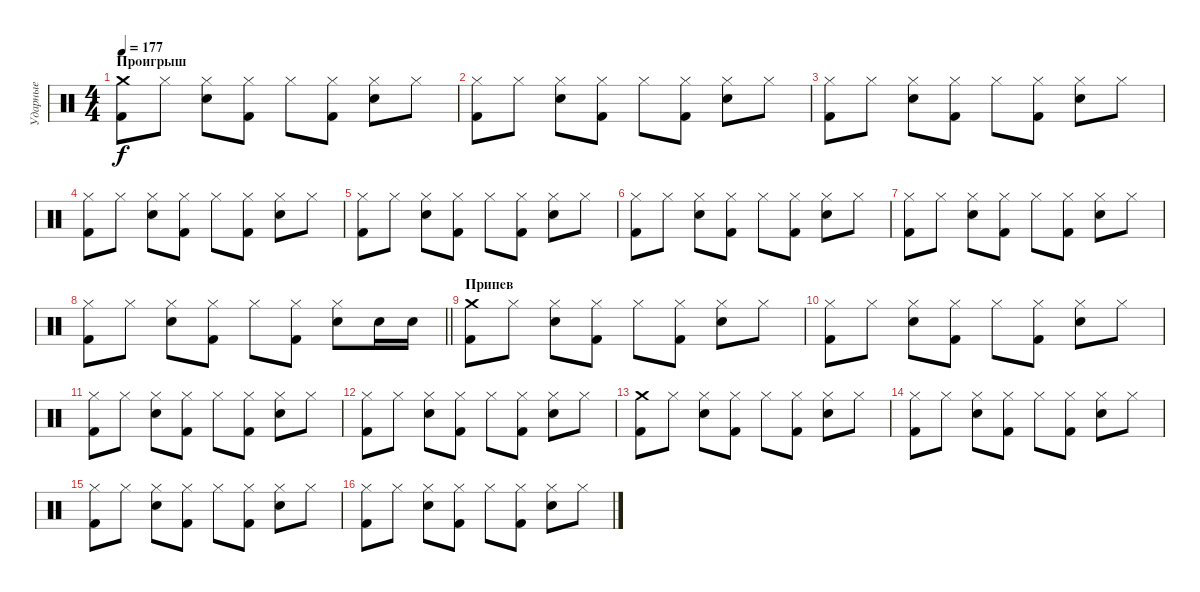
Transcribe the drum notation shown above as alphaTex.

\track ("Ударные" "Ударные") {instrument percussion}
\staff {score}
\articulation defaults
\ts (4 4)
\section ("" "Проигрыш")
\tempo 177
\clef neutral
\ks c
("Crash medium (hit)" "Kick (hit) 2").8{dy f} "Hi-Hat (closed)".8 ("Hi-Hat (closed)" "Snare (hit) 2").8 ("Hi-Hat (closed)" "Kick (hit) 2").8 "Hi-Hat (closed)".8 ("Hi-Hat (closed)" "Kick (hit) 2").8 ("Hi-Hat (closed)" "Snare (hit) 2").8 "Hi-Hat (closed)".8 |
("Hi-Hat (closed)" "Kick (hit) 2").8 "Hi-Hat (closed)".8 ("Hi-Hat (closed)" "Snare (hit) 2").8 ("Hi-Hat (closed)" "Kick (hit) 2").8 "Hi-Hat (closed)".8 ("Hi-Hat (closed)" "Kick (hit) 2").8 ("Hi-Hat (closed)" "Snare (hit) 2").8 "Hi-Hat (closed)".8 |
("Hi-Hat (closed)" "Kick (hit) 2").8 "Hi-Hat (closed)".8 ("Hi-Hat (closed)" "Snare (hit) 2").8 ("Hi-Hat (closed)" "Kick (hit) 2").8 "Hi-Hat (closed)".8 ("Hi-Hat (closed)" "Kick (hit) 2").8 ("Hi-Hat (closed)" "Snare (hit) 2").8 "Hi-Hat (closed)".8 |
("Hi-Hat (closed)" "Kick (hit) 2").8 "Hi-Hat (closed)".8 ("Hi-Hat (closed)" "Snare (hit) 2").8 ("Hi-Hat (closed)" "Kick (hit) 2").8 "Hi-Hat (closed)".8 ("Hi-Hat (closed)" "Kick (hit) 2").8 ("Hi-Hat (closed)" "Snare (hit) 2").8 "Hi-Hat (closed)".8 |
("Hi-Hat (closed)" "Kick (hit) 2").8 "Hi-Hat (closed)".8 ("Hi-Hat (closed)" "Snare (hit) 2").8 ("Hi-Hat (closed)" "Kick (hit) 2").8 "Hi-Hat (closed)".8 ("Hi-Hat (closed)" "Kick (hit) 2").8 ("Hi-Hat (closed)" "Snare (hit) 2").8 "Hi-Hat (closed)".8 |
("Hi-Hat (closed)" "Kick (hit) 2").8 "Hi-Hat (closed)".8 ("Hi-Hat (closed)" "Snare (hit) 2").8 ("Hi-Hat (closed)" "Kick (hit) 2").8 "Hi-Hat (closed)".8 ("Hi-Hat (closed)" "Kick (hit) 2").8 ("Hi-Hat (closed)" "Snare (hit) 2").8 "Hi-Hat (closed)".8 |
("Hi-Hat (closed)" "Kick (hit) 2").8 "Hi-Hat (closed)".8 ("Hi-Hat (closed)" "Snare (hit) 2").8 ("Hi-Hat (closed)" "Kick (hit) 2").8 "Hi-Hat (closed)".8 ("Hi-Hat (closed)" "Kick (hit) 2").8 ("Hi-Hat (closed)" "Snare (hit) 2").8 "Hi-Hat (closed)".8 |
\barLineRight lightlight
("Hi-Hat (closed)" "Kick (hit) 2").8 "Hi-Hat (closed)".8 ("Hi-Hat (closed)" "Snare (hit) 2").8 ("Hi-Hat (closed)" "Kick (hit) 2").8 "Hi-Hat (closed)".8 ("Hi-Hat (closed)" "Kick (hit) 2").8 ("Hi-Hat (closed)" "Snare (hit) 2").8 "Snare (hit) 2".16 "Snare (hit) 2".16 |
\section ("" "Припев")
("Crash medium (hit)" "Kick (hit) 2").8 "Hi-Hat (closed)".8 ("Hi-Hat (closed)" "Snare (hit) 2").8 ("Hi-Hat (closed)" "Kick (hit) 2").8 "Hi-Hat (closed)".8 ("Hi-Hat (closed)" "Kick (hit) 2").8 ("Hi-Hat (closed)" "Snare (hit) 2").8 "Hi-Hat (closed)".8 |
("Hi-Hat (closed)" "Kick (hit) 2").8 "Hi-Hat (closed)".8 ("Hi-Hat (closed)" "Snare (hit) 2").8 ("Hi-Hat (closed)" "Kick (hit) 2").8 "Hi-Hat (closed)".8 ("Hi-Hat (closed)" "Kick (hit) 2").8 ("Hi-Hat (closed)" "Snare (hit) 2").8 "Hi-Hat (closed)".8 |
("Hi-Hat (closed)" "Kick (hit) 2").8 "Hi-Hat (closed)".8 ("Hi-Hat (closed)" "Snare (hit) 2").8 ("Hi-Hat (closed)" "Kick (hit) 2").8 "Hi-Hat (closed)".8 ("Hi-Hat (closed)" "Kick (hit) 2").8 ("Hi-Hat (closed)" "Snare (hit) 2").8 "Hi-Hat (closed)".8 |
("Hi-Hat (closed)" "Kick (hit) 2").8 "Hi-Hat (closed)".8 ("Hi-Hat (closed)" "Snare (hit) 2").8 ("Hi-Hat (closed)" "Kick (hit) 2").8 "Hi-Hat (closed)".8 ("Hi-Hat (closed)" "Kick (hit) 2").8 ("Hi-Hat (closed)" "Snare (hit) 2").8 "Hi-Hat (closed)".8 |
("Crash medium (hit)" "Kick (hit) 2").8 "Hi-Hat (closed)".8 ("Hi-Hat (closed)" "Snare (hit) 2").8 ("Hi-Hat (closed)" "Kick (hit) 2").8 "Hi-Hat (closed)".8 ("Hi-Hat (closed)" "Kick (hit) 2").8 ("Hi-Hat (closed)" "Snare (hit) 2").8 "Hi-Hat (closed)".8 |
("Hi-Hat (closed)" "Kick (hit) 2").8 "Hi-Hat (closed)".8 ("Hi-Hat (closed)" "Snare (hit) 2").8 ("Hi-Hat (closed)" "Kick (hit) 2").8 "Hi-Hat (closed)".8 ("Hi-Hat (closed)" "Kick (hit) 2").8 ("Hi-Hat (closed)" "Snare (hit) 2").8 "Hi-Hat (closed)".8 |
("Hi-Hat (closed)" "Kick (hit) 2").8 "Hi-Hat (closed)".8 ("Hi-Hat (closed)" "Snare (hit) 2").8 ("Hi-Hat (closed)" "Kick (hit) 2").8 "Hi-Hat (closed)".8 ("Hi-Hat (closed)" "Kick (hit) 2").8 ("Hi-Hat (closed)" "Snare (hit) 2").8 "Hi-Hat (closed)".8 |
("Hi-Hat (closed)" "Kick (hit) 2").8 "Hi-Hat (closed)".8 ("Hi-Hat (closed)" "Snare (hit) 2").8 ("Hi-Hat (closed)" "Kick (hit) 2").8 "Hi-Hat (closed)".8 ("Hi-Hat (closed)" "Kick (hit) 2").8 ("Hi-Hat (closed)" "Snare (hit) 2").8 "Hi-Hat (closed)".8
